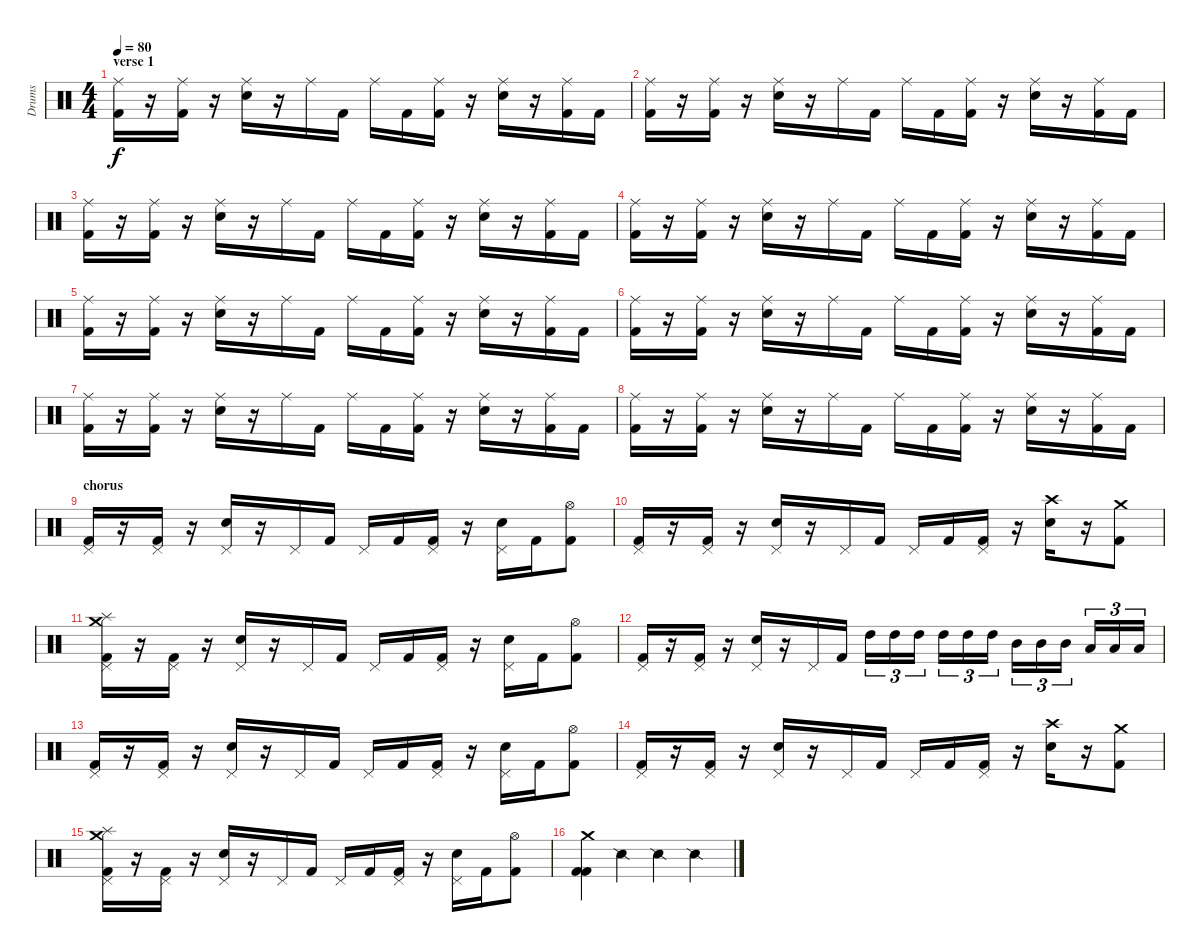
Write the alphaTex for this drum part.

\track ("Drums" "Drums") {instrument percussion}
\staff {score}
\articulation defaults
\ts (4 4)
\section ("" "verse 1")
\tempo 80
\clef neutral
\ks c
("Ride (middle)" "Kick (hit) 2").16{dy f} r.16 ("Ride (middle)" "Kick (hit) 2").16 r.16 ("Ride (middle)" "Snare (hit) 2").16 r.16 "Ride (middle)".16 "Kick (hit) 2".16 "Ride (middle)".16 "Kick (hit) 2".16 ("Ride (middle)" "Kick (hit) 2").16 r.16 ("Ride (middle)" "Snare (hit) 2").16 r.16 ("Ride (middle)" "Kick (hit) 2").16 "Kick (hit) 2".16 |
("Ride (middle)" "Kick (hit) 2").16 r.16 ("Ride (middle)" "Kick (hit) 2").16 r.16 ("Ride (middle)" "Snare (hit) 2").16 r.16 "Ride (middle)".16 "Kick (hit) 2".16 "Ride (middle)".16 "Kick (hit) 2".16 ("Ride (middle)" "Kick (hit) 2").16 r.16 ("Ride (middle)" "Snare (hit) 2").16 r.16 ("Ride (middle)" "Kick (hit) 2").16 "Kick (hit) 2".16 |
("Ride (middle)" "Kick (hit) 2").16 r.16 ("Ride (middle)" "Kick (hit) 2").16 r.16 ("Ride (middle)" "Snare (hit) 2").16 r.16 "Ride (middle)".16 "Kick (hit) 2".16 "Ride (middle)".16 "Kick (hit) 2".16 ("Ride (middle)" "Kick (hit) 2").16 r.16 ("Ride (middle)" "Snare (hit) 2").16 r.16 ("Ride (middle)" "Kick (hit) 2").16 "Kick (hit) 2".16 |
("Ride (middle)" "Kick (hit) 2").16 r.16 ("Ride (middle)" "Kick (hit) 2").16 r.16 ("Ride (middle)" "Snare (hit) 2").16 r.16 "Ride (middle)".16 "Kick (hit) 2".16 "Ride (middle)".16 "Kick (hit) 2".16 ("Ride (middle)" "Kick (hit) 2").16 r.16 ("Ride (middle)" "Snare (hit) 2").16 r.16 ("Ride (middle)" "Kick (hit) 2").16 "Kick (hit) 2".16 |
("Ride (middle)" "Kick (hit) 2").16 r.16 ("Ride (middle)" "Kick (hit) 2").16 r.16 ("Ride (middle)" "Snare (hit) 2").16 r.16 "Ride (middle)".16 "Kick (hit) 2".16 "Ride (middle)".16 "Kick (hit) 2".16 ("Ride (middle)" "Kick (hit) 2").16 r.16 ("Ride (middle)" "Snare (hit) 2").16 r.16 ("Ride (middle)" "Kick (hit) 2").16 "Kick (hit) 2".16 |
("Ride (middle)" "Kick (hit) 2").16 r.16 ("Ride (middle)" "Kick (hit) 2").16 r.16 ("Ride (middle)" "Snare (hit) 2").16 r.16 "Ride (middle)".16 "Kick (hit) 2".16 "Ride (middle)".16 "Kick (hit) 2".16 ("Ride (middle)" "Kick (hit) 2").16 r.16 ("Ride (middle)" "Snare (hit) 2").16 r.16 ("Ride (middle)" "Kick (hit) 2").16 "Kick (hit) 2".16 |
("Ride (middle)" "Kick (hit) 2").16 r.16 ("Ride (middle)" "Kick (hit) 2").16 r.16 ("Ride (middle)" "Snare (hit) 2").16 r.16 "Ride (middle)".16 "Kick (hit) 2".16 "Ride (middle)".16 "Kick (hit) 2".16 ("Ride (middle)" "Kick (hit) 2").16 r.16 ("Ride (middle)" "Snare (hit) 2").16 r.16 ("Ride (middle)" "Kick (hit) 2").16 "Kick (hit) 2".16 |
("Ride (middle)" "Kick (hit) 2").16 r.16 ("Ride (middle)" "Kick (hit) 2").16 r.16 ("Ride (middle)" "Snare (hit) 2").16 r.16 "Ride (middle)".16 "Kick (hit) 2".16 "Ride (middle)".16 "Kick (hit) 2".16 ("Ride (middle)" "Kick (hit) 2").16 r.16 ("Ride (middle)" "Snare (hit) 2").16 r.16 ("Ride (middle)" "Kick (hit) 2").16 "Kick (hit) 2".16 |
\section ("" "chorus")
("Pedal Hi-Hat (hit)" "Kick (hit) 2").16 r.16 ("Pedal Hi-Hat (hit)" "Kick (hit) 2").16 r.16 ("Pedal Hi-Hat (hit)" "Snare (hit) 2").16 r.16 "Pedal Hi-Hat (hit)".16 "Kick (hit) 2".16 "Pedal Hi-Hat (hit)".16 "Kick (hit) 2".16 ("Pedal Hi-Hat (hit)" "Kick (hit) 2").16 r.16 ("Pedal Hi-Hat (hit)" "Snare (hit) 2").16 "Kick (hit) 2".16 ("Hi-Hat (open)" "Kick (hit) 2").8 |
("Pedal Hi-Hat (hit)" "Kick (hit) 2").16 r.16 ("Pedal Hi-Hat (hit)" "Kick (hit) 2").16 r.16 ("Pedal Hi-Hat (hit)" "Snare (hit) 2").16 r.16 "Pedal Hi-Hat (hit)".16 "Kick (hit) 2".16 "Pedal Hi-Hat (hit)".16 "Kick (hit) 2".16 ("Pedal Hi-Hat (hit)" "Kick (hit) 2").16 r.16 ("Crash high (hit)" "Snare (hit) 2").16 r.16 ("Crash medium (hit)" "Kick (hit) 2").8 |
("Pedal Hi-Hat (hit)" "Splash (hit)" "Crash medium (hit)" "Kick (hit) 2").16 r.16 ("Pedal Hi-Hat (hit)" "Kick (hit) 2").16 r.16 ("Pedal Hi-Hat (hit)" "Snare (hit) 2").16 r.16 "Pedal Hi-Hat (hit)".16 "Kick (hit) 2".16 "Pedal Hi-Hat (hit)".16 "Kick (hit) 2".16 ("Pedal Hi-Hat (hit)" "Kick (hit) 2").16 r.16 ("Pedal Hi-Hat (hit)" "Snare (hit) 2").16 "Kick (hit) 2".16 ("Hi-Hat (open)" "Kick (hit) 2").8 |
("Pedal Hi-Hat (hit)" "Kick (hit) 2").16 r.16 ("Pedal Hi-Hat (hit)" "Kick (hit) 2").16 r.16 ("Pedal Hi-Hat (hit)" "Snare (hit) 2").16 r.16 "Pedal Hi-Hat (hit)".16 "Kick (hit) 2".16 "High Tom (hit)".16{tu (3 2)} "High Tom (hit)".16{tu (3 2)} "High Tom (hit)".16{tu (3 2)} "High Tom (hit)".16{tu (3 2)} "High Tom (hit)".16{tu (3 2)} "High Tom (hit)".16{tu (3 2)} "Mid Tom (hit)".16{tu (3 2)} "Mid Tom (hit)".16{tu (3 2)} "Mid Tom (hit)".16{tu (3 2)} "Low Tom (hit)".16{tu (3 2)} "Low Tom (hit)".16{tu (3 2)} "Low Tom (hit)".16{tu (3 2)} |
("Pedal Hi-Hat (hit)" "Kick (hit) 2").16 r.16 ("Pedal Hi-Hat (hit)" "Kick (hit) 2").16 r.16 ("Pedal Hi-Hat (hit)" "Snare (hit) 2").16 r.16 "Pedal Hi-Hat (hit)".16 "Kick (hit) 2".16 "Pedal Hi-Hat (hit)".16 "Kick (hit) 2".16 ("Pedal Hi-Hat (hit)" "Kick (hit) 2").16 r.16 ("Pedal Hi-Hat (hit)" "Snare (hit) 2").16 "Kick (hit) 2".16 ("Hi-Hat (open)" "Kick (hit) 2").8 |
("Pedal Hi-Hat (hit)" "Kick (hit) 2").16 r.16 ("Pedal Hi-Hat (hit)" "Kick (hit) 2").16 r.16 ("Pedal Hi-Hat (hit)" "Snare (hit) 2").16 r.16 "Pedal Hi-Hat (hit)".16 "Kick (hit) 2".16 "Pedal Hi-Hat (hit)".16 "Kick (hit) 2".16 ("Pedal Hi-Hat (hit)" "Kick (hit) 2").16 r.16 ("Crash high (hit)" "Snare (hit) 2").16 r.16 ("Crash medium (hit)" "Kick (hit) 2").8 |
("Pedal Hi-Hat (hit)" "Splash (hit)" "Crash medium (hit)" "Kick (hit) 2").16 r.16 ("Pedal Hi-Hat (hit)" "Kick (hit) 2").16 r.16 ("Pedal Hi-Hat (hit)" "Snare (hit) 2").16 r.16 "Pedal Hi-Hat (hit)".16 "Kick (hit) 2".16 "Pedal Hi-Hat (hit)".16 "Kick (hit) 2".16 ("Pedal Hi-Hat (hit)" "Kick (hit) 2").16 r.16 ("Pedal Hi-Hat (hit)" "Snare (hit) 2").16 "Kick (hit) 2".16 ("Hi-Hat (open)" "Kick (hit) 2").8 |
("Crash medium (hit)" "Kick (hit) 2" "Kick (hit) 2").4 "Snare (side stick) 2".4 "Snare (side stick) 2".4 "Snare (side stick) 2".4
